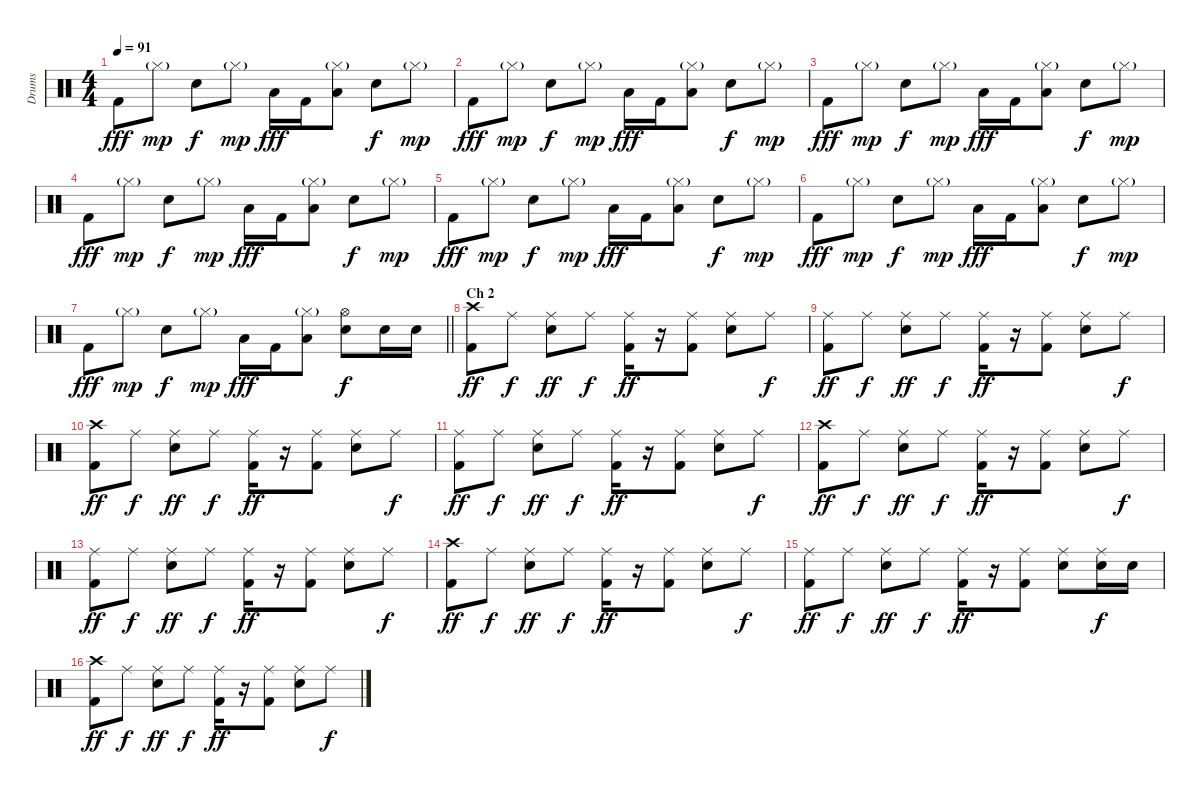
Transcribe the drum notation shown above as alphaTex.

\track ("Drums" "Drums") {instrument percussion}
\staff {score}
\articulation defaults
\ts (4 4)
\tempo 91
\clef neutral
\ks c "Kick (hit) 2".8{dy fff} "Hi-Hat (closed)"{g}.8{dy mp} "Electric Snare (hit)".8{dy f} "Hi-Hat (closed)"{g}.8{dy mp} "Low Tom (hit)".16{dy fff} "Kick (hit) 2".16
("Hi-Hat (closed)"{g} "Low Tom (hit)").8 "Electric Snare (hit)".8{dy f} "Hi-Hat (closed)"{g}.8{dy mp} |
"Kick (hit) 2".8{dy fff} "Hi-Hat (closed)"{g}.8{dy mp} "Electric Snare (hit)".8{dy f} "Hi-Hat (closed)"{g}.8{dy mp} "Low Tom (hit)".16{dy fff} "Kick (hit) 2".16 ("Hi-Hat (closed)"{g} "Low Tom (hit)").8 "Electric Snare (hit)".8{dy f} "Hi-Hat (closed)"{g}.8{dy mp} |
"Kick (hit) 2".8{dy fff} "Hi-Hat (closed)"{g}.8{dy mp} "Electric Snare (hit)".8{dy f} "Hi-Hat (closed)"{g}.8{dy mp} "Low Tom (hit)".16{dy fff} "Kick (hit) 2".16 ("Hi-Hat (closed)"{g} "Low Tom (hit)").8 "Electric Snare (hit)".8{dy f} "Hi-Hat (closed)"{g}.8{dy mp} |
"Kick (hit) 2".8{dy fff} "Hi-Hat (closed)"{g}.8{dy mp} "Electric Snare (hit)".8{dy f} "Hi-Hat (closed)"{g}.8{dy mp} "Low Tom (hit)".16{dy fff} "Kick (hit) 2".16 ("Hi-Hat (closed)"{g} "Low Tom (hit)").8 "Electric Snare (hit)".8{dy f} "Hi-Hat (closed)"{g}.8{dy mp} |
"Kick (hit) 2".8{dy fff} "Hi-Hat (closed)"{g}.8{dy mp} "Electric Snare (hit)".8{dy f} "Hi-Hat (closed)"{g}.8{dy mp} "Low Tom (hit)".16{dy fff} "Kick (hit) 2".16 ("Hi-Hat (closed)"{g} "Low Tom (hit)").8 "Electric Snare (hit)".8{dy f} "Hi-Hat (closed)"{g}.8{dy mp} |
"Kick (hit) 2".8{dy fff} "Hi-Hat (closed)"{g}.8{dy mp} "Electric Snare (hit)".8{dy f} "Hi-Hat (closed)"{g}.8{dy mp} "Low Tom (hit)".16{dy fff} "Kick (hit) 2".16 ("Hi-Hat (closed)"{g} "Low Tom (hit)").8 "Electric Snare (hit)".8{dy f} "Hi-Hat (closed)"{g}.8{dy mp} |
\barLineRight lightlight "Kick (hit) 2".8{dy fff} "Hi-Hat (closed)"{g}.8{dy mp} "Electric Snare (hit)".8{dy f} "Hi-Hat (closed)"{g}.8{dy mp} "Low Tom (hit)".16{dy fff} "Kick (hit) 2".16
("Hi-Hat (closed)"{g} "Low Tom (hit)").8 ("Hi-Hat (open)" "Electric Snare (hit)").8{dy f} "Electric Snare (hit)".16 "Electric Snare (hit)".16 |
\section ("" "Ch 2")
("Crash high (hit)" "Kick (hit) 2").8{dy ff} "Ride (middle)".8{dy f} ("Ride (middle)" "Electric Snare (hit)").8{dy ff} "Ride (middle)".8{dy f} ("Ride (middle)" "Kick (hit) 2").16{dy ff} r.16 ("Ride (middle)" "Kick (hit) 2").8 ("Ride (middle)" "Electric Snare (hit)").8 "Ride (middle)".8{dy f} |
("Ride (middle)" "Kick (hit) 2").8{dy ff} "Ride (middle)".8{dy f} ("Ride (middle)" "Electric Snare (hit)").8{dy ff} "Ride (middle)".8{dy f} ("Ride (middle)" "Kick (hit) 2").16{dy ff} r.16 ("Ride (middle)" "Kick (hit) 2").8 ("Ride (middle)" "Electric Snare (hit)").8 "Ride (middle)".8{dy f} |
("Crash high (hit)" "Kick (hit) 2").8{dy ff} "Ride (middle)".8{dy f} ("Ride (middle)" "Electric Snare (hit)").8{dy ff} "Ride (middle)".8{dy f} ("Ride (middle)" "Kick (hit) 2").16{dy ff} r.16 ("Ride (middle)" "Kick (hit) 2").8 ("Ride (middle)" "Electric Snare (hit)").8 "Ride (middle)".8{dy f} |
("Ride (middle)" "Kick (hit) 2").8{dy ff} "Ride (middle)".8{dy f} ("Ride (middle)" "Electric Snare (hit)").8{dy ff} "Ride (middle)".8{dy f} ("Ride (middle)" "Kick (hit) 2").16{dy ff} r.16 ("Ride (middle)" "Kick (hit) 2").8 ("Ride (middle)" "Electric Snare (hit)").8 "Ride (middle)".8{dy f} |
("Crash high (hit)" "Kick (hit) 2").8{dy ff} "Ride (middle)".8{dy f} ("Ride (middle)" "Electric Snare (hit)").8{dy ff} "Ride (middle)".8{dy f} ("Ride (middle)" "Kick (hit) 2").16{dy ff} r.16 ("Ride (middle)" "Kick (hit) 2").8 ("Ride (middle)" "Electric Snare (hit)").8 "Ride (middle)".8{dy f} |
("Ride (middle)" "Kick (hit) 2").8{dy ff} "Ride (middle)".8{dy f} ("Ride (middle)" "Electric Snare (hit)").8{dy ff} "Ride (middle)".8{dy f} ("Ride (middle)" "Kick (hit) 2").16{dy ff} r.16 ("Ride (middle)" "Kick (hit) 2").8 ("Ride (middle)" "Electric Snare (hit)").8 "Ride (middle)".8{dy f} |
("Crash high (hit)" "Kick (hit) 2").8{dy ff} "Ride (middle)".8{dy f} ("Ride (middle)" "Electric Snare (hit)").8{dy ff} "Ride (middle)".8{dy f} ("Ride (middle)" "Kick (hit) 2").16{dy ff} r.16 ("Ride (middle)" "Kick (hit) 2").8 ("Ride (middle)" "Electric Snare (hit)").8 "Ride (middle)".8{dy f} |
("Ride (middle)" "Kick (hit) 2").8{dy ff} "Ride (middle)".8{dy f} ("Ride (middle)" "Electric Snare (hit)").8{dy ff} "Ride (middle)".8{dy f} ("Ride (middle)" "Kick (hit) 2").16{dy ff} r.16 ("Ride (middle)" "Kick (hit) 2").8 ("Ride (middle)" "Electric Snare (hit)").8 ("Ride (middle)" "Electric Snare (hit)").16{dy f} "Electric Snare (hit)".16 |
("Crash high (hit)" "Kick (hit) 2").8{dy ff} "Ride (middle)".8{dy f} ("Ride (middle)" "Electric Snare (hit)").8{dy ff} "Ride (middle)".8{dy f} ("Ride (middle)" "Kick (hit) 2").16{dy ff} r.16 ("Ride (middle)" "Kick (hit) 2").8 ("Ride (middle)" "Electric Snare (hit)").8 "Ride (middle)".8{dy f}
